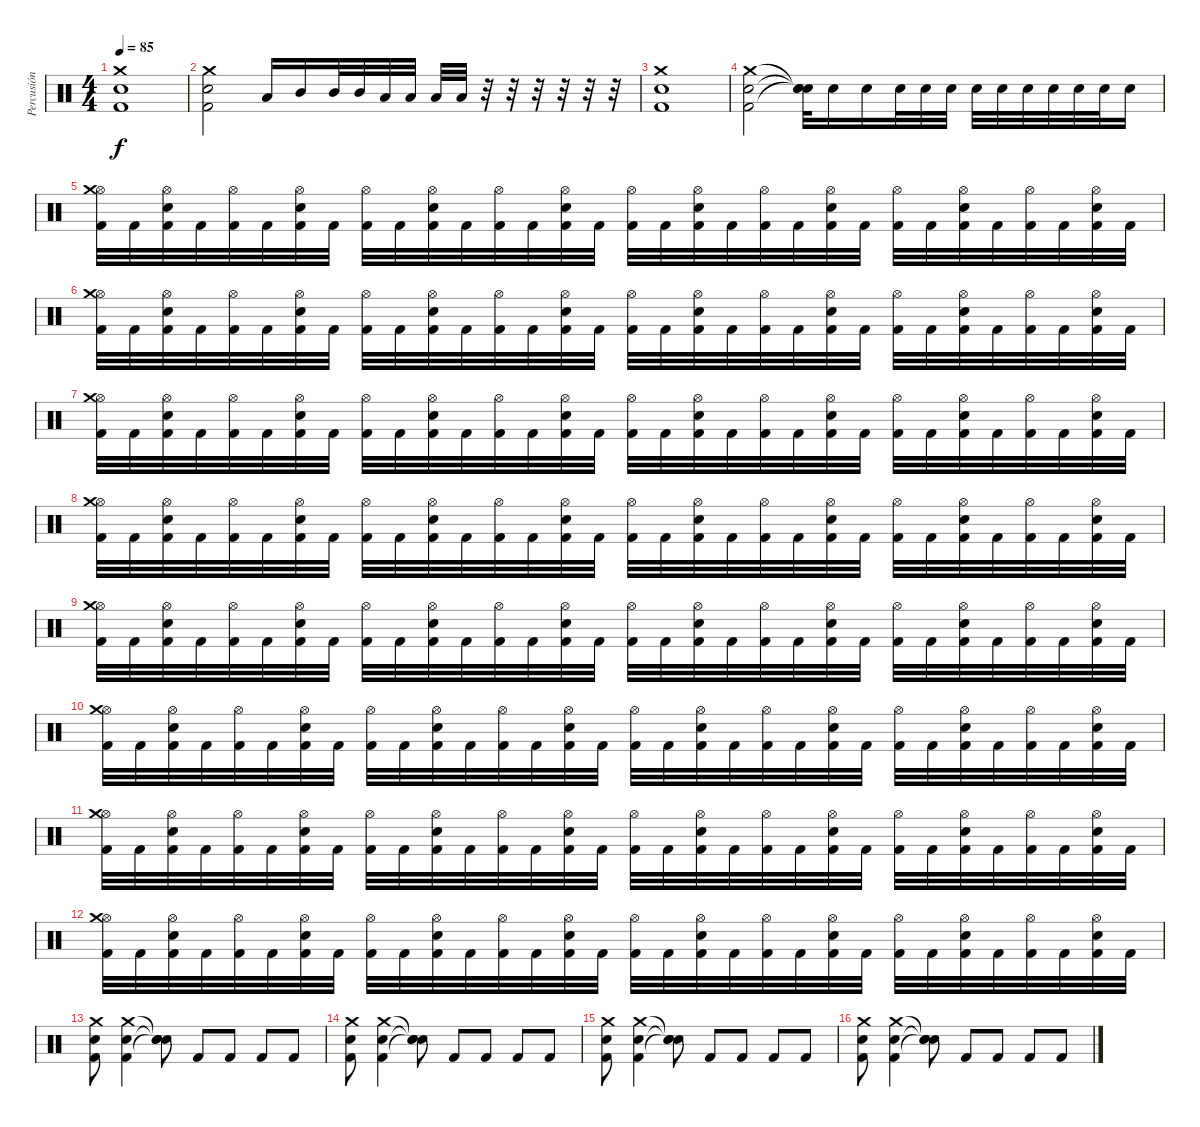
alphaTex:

\track ("Percusión" "Percusión") {instrument percussion}
\staff {score}
\articulation defaults
\ts (4 4)
\tempo 85
\clef neutral
\ks c
("Crash medium (hit)" "Snare (hit) 2" "Kick (hit) 2").1{dy f} |
("Crash medium (hit)" "Snare (hit) 2" "Kick (hit) 2").2 "Low Tom (hit)".16 "Mid Tom (hit)".16 "Mid Tom (hit)".32 "Mid Tom (hit)".32 "Low Tom (hit)".32 "Low Tom (hit)".32 "Low Tom (hit)".32 "Low Tom (hit)".32 r.32 r.32 r.32 r.32 r.32 r.32 |
("Crash medium (hit)" "Snare (hit) 2" "Kick (hit) 2").1 |
("Crash medium (hit)" "Snare (hit) 2" "Kick (hit) 2").2 ("Snare (hit)"{t} "Snare (hit) 2"{t} "Snare (hit)"{t}).32 "Snare (hit) 2".16 "Snare (hit) 2".16 "Snare (hit) 2".32 "Snare (hit) 2".32 "Snare (hit) 2".32 "Snare (hit) 2".32 "Snare (hit) 2".32 "Snare (hit) 2".32 "Snare (hit) 2".32 "Snare (hit) 2".32 "Snare (hit) 2".32 "Snare (hit) 2".16 |
("Hi-Hat (open)" "Kick (hit) 2" "Crash medium (hit)").32 "Kick (hit) 2".32 ("Hi-Hat (open)" "Electric Snare (hit)" "Kick (hit) 2").32 "Kick (hit) 2".32 ("Hi-Hat (open)" "Kick (hit) 2").32 "Kick (hit) 2".32 ("Hi-Hat (open)" "Electric Snare (hit)" "Kick (hit) 2").32 "Kick (hit) 2".32 ("Hi-Hat (open)" "Kick (hit) 2").32 "Kick (hit) 2".32 ("Hi-Hat (open)" "Electric Snare (hit)" "Kick (hit) 2").32 "Kick (hit) 2".32 ("Hi-Hat (open)" "Kick (hit) 2").32 "Kick (hit) 2".32 ("Hi-Hat (open)" "Electric Snare (hit)" "Kick (hit) 2").32 "Kick (hit) 2".32 ("Hi-Hat (open)" "Kick (hit) 2").32 "Kick (hit) 2".32 ("Hi-Hat (open)" "Electric Snare (hit)" "Kick (hit) 2").32 "Kick (hit) 2".32 ("Hi-Hat (open)" "Kick (hit) 2").32 "Kick (hit) 2".32 ("Hi-Hat (open)" "Electric Snare (hit)" "Kick (hit) 2").32 "Kick (hit) 2".32 ("Hi-Hat (open)" "Kick (hit) 2").32 "Kick (hit) 2".32 ("Hi-Hat (open)" "Electric Snare (hit)" "Kick (hit) 2").32 "Kick (hit) 2".32 ("Hi-Hat (open)" "Kick (hit) 2").32 "Kick (hit) 2".32 ("Hi-Hat (open)" "Electric Snare (hit)" "Kick (hit) 2").32 "Kick (hit) 2".32 |
("Hi-Hat (open)" "Kick (hit) 2" "Crash medium (hit)").32 "Kick (hit) 2".32 ("Hi-Hat (open)" "Electric Snare (hit)" "Kick (hit) 2").32 "Kick (hit) 2".32 ("Hi-Hat (open)" "Kick (hit) 2").32 "Kick (hit) 2".32 ("Hi-Hat (open)" "Electric Snare (hit)" "Kick (hit) 2").32 "Kick (hit) 2".32 ("Hi-Hat (open)" "Kick (hit) 2").32 "Kick (hit) 2".32 ("Hi-Hat (open)" "Electric Snare (hit)" "Kick (hit) 2").32 "Kick (hit) 2".32 ("Hi-Hat (open)" "Kick (hit) 2").32 "Kick (hit) 2".32 ("Hi-Hat (open)" "Electric Snare (hit)" "Kick (hit) 2").32 "Kick (hit) 2".32 ("Hi-Hat (open)" "Kick (hit) 2").32 "Kick (hit) 2".32 ("Hi-Hat (open)" "Electric Snare (hit)" "Kick (hit) 2").32 "Kick (hit) 2".32 ("Hi-Hat (open)" "Kick (hit) 2").32 "Kick (hit) 2".32 ("Hi-Hat (open)" "Electric Snare (hit)" "Kick (hit) 2").32 "Kick (hit) 2".32 ("Hi-Hat (open)" "Kick (hit) 2").32 "Kick (hit) 2".32 ("Hi-Hat (open)" "Electric Snare (hit)" "Kick (hit) 2").32 "Kick (hit) 2".32 ("Hi-Hat (open)" "Kick (hit) 2").32 "Kick (hit) 2".32 ("Hi-Hat (open)" "Electric Snare (hit)" "Kick (hit) 2").32 "Kick (hit) 2".32 |
("Hi-Hat (open)" "Kick (hit) 2" "Crash medium (hit)").32 "Kick (hit) 2".32 ("Hi-Hat (open)" "Electric Snare (hit)" "Kick (hit) 2").32 "Kick (hit) 2".32 ("Hi-Hat (open)" "Kick (hit) 2").32 "Kick (hit) 2".32 ("Hi-Hat (open)" "Electric Snare (hit)" "Kick (hit) 2").32 "Kick (hit) 2".32 ("Hi-Hat (open)" "Kick (hit) 2").32 "Kick (hit) 2".32 ("Hi-Hat (open)" "Electric Snare (hit)" "Kick (hit) 2").32 "Kick (hit) 2".32 ("Hi-Hat (open)" "Kick (hit) 2").32 "Kick (hit) 2".32 ("Hi-Hat (open)" "Electric Snare (hit)" "Kick (hit) 2").32 "Kick (hit) 2".32 ("Hi-Hat (open)" "Kick (hit) 2").32 "Kick (hit) 2".32 ("Hi-Hat (open)" "Electric Snare (hit)" "Kick (hit) 2").32 "Kick (hit) 2".32 ("Hi-Hat (open)" "Kick (hit) 2").32 "Kick (hit) 2".32 ("Hi-Hat (open)" "Electric Snare (hit)" "Kick (hit) 2").32 "Kick (hit) 2".32 ("Hi-Hat (open)" "Kick (hit) 2").32 "Kick (hit) 2".32 ("Hi-Hat (open)" "Electric Snare (hit)" "Kick (hit) 2").32 "Kick (hit) 2".32 ("Hi-Hat (open)" "Kick (hit) 2").32 "Kick (hit) 2".32 ("Hi-Hat (open)" "Electric Snare (hit)" "Kick (hit) 2").32 "Kick (hit) 2".32 |
("Hi-Hat (open)" "Kick (hit) 2" "Crash medium (hit)").32 "Kick (hit) 2".32 ("Hi-Hat (open)" "Electric Snare (hit)" "Kick (hit) 2").32 "Kick (hit) 2".32 ("Hi-Hat (open)" "Kick (hit) 2").32 "Kick (hit) 2".32 ("Hi-Hat (open)" "Electric Snare (hit)" "Kick (hit) 2").32 "Kick (hit) 2".32 ("Hi-Hat (open)" "Kick (hit) 2").32 "Kick (hit) 2".32 ("Hi-Hat (open)" "Electric Snare (hit)" "Kick (hit) 2").32 "Kick (hit) 2".32 ("Hi-Hat (open)" "Kick (hit) 2").32 "Kick (hit) 2".32 ("Hi-Hat (open)" "Electric Snare (hit)" "Kick (hit) 2").32 "Kick (hit) 2".32 ("Hi-Hat (open)" "Kick (hit) 2").32 "Kick (hit) 2".32 ("Hi-Hat (open)" "Electric Snare (hit)" "Kick (hit) 2").32 "Kick (hit) 2".32 ("Hi-Hat (open)" "Kick (hit) 2").32 "Kick (hit) 2".32 ("Hi-Hat (open)" "Electric Snare (hit)" "Kick (hit) 2").32 "Kick (hit) 2".32 ("Hi-Hat (open)" "Kick (hit) 2").32 "Kick (hit) 2".32 ("Hi-Hat (open)" "Electric Snare (hit)" "Kick (hit) 2").32 "Kick (hit) 2".32 ("Hi-Hat (open)" "Kick (hit) 2").32 "Kick (hit) 2".32 ("Hi-Hat (open)" "Electric Snare (hit)" "Kick (hit) 2").32 "Kick (hit) 2".32 |
("Hi-Hat (open)" "Kick (hit) 2" "Crash medium (hit)").32 "Kick (hit) 2".32 ("Hi-Hat (open)" "Electric Snare (hit)" "Kick (hit) 2").32 "Kick (hit) 2".32 ("Hi-Hat (open)" "Kick (hit) 2").32 "Kick (hit) 2".32 ("Hi-Hat (open)" "Electric Snare (hit)" "Kick (hit) 2").32 "Kick (hit) 2".32 ("Hi-Hat (open)" "Kick (hit) 2").32 "Kick (hit) 2".32 ("Hi-Hat (open)" "Electric Snare (hit)" "Kick (hit) 2").32 "Kick (hit) 2".32 ("Hi-Hat (open)" "Kick (hit) 2").32 "Kick (hit) 2".32 ("Hi-Hat (open)" "Electric Snare (hit)" "Kick (hit) 2").32 "Kick (hit) 2".32 ("Hi-Hat (open)" "Kick (hit) 2").32 "Kick (hit) 2".32 ("Hi-Hat (open)" "Electric Snare (hit)" "Kick (hit) 2").32 "Kick (hit) 2".32 ("Hi-Hat (open)" "Kick (hit) 2").32 "Kick (hit) 2".32 ("Hi-Hat (open)" "Electric Snare (hit)" "Kick (hit) 2").32 "Kick (hit) 2".32 ("Hi-Hat (open)" "Kick (hit) 2").32 "Kick (hit) 2".32 ("Hi-Hat (open)" "Electric Snare (hit)" "Kick (hit) 2").32 "Kick (hit) 2".32 ("Hi-Hat (open)" "Kick (hit) 2").32 "Kick (hit) 2".32 ("Hi-Hat (open)" "Electric Snare (hit)" "Kick (hit) 2").32 "Kick (hit) 2".32 |
("Hi-Hat (open)" "Kick (hit) 2" "Crash medium (hit)").32 "Kick (hit) 2".32 ("Hi-Hat (open)" "Electric Snare (hit)" "Kick (hit) 2").32 "Kick (hit) 2".32 ("Hi-Hat (open)" "Kick (hit) 2").32 "Kick (hit) 2".32 ("Hi-Hat (open)" "Electric Snare (hit)" "Kick (hit) 2").32 "Kick (hit) 2".32 ("Hi-Hat (open)" "Kick (hit) 2").32 "Kick (hit) 2".32 ("Hi-Hat (open)" "Electric Snare (hit)" "Kick (hit) 2").32 "Kick (hit) 2".32 ("Hi-Hat (open)" "Kick (hit) 2").32 "Kick (hit) 2".32 ("Hi-Hat (open)" "Electric Snare (hit)" "Kick (hit) 2").32 "Kick (hit) 2".32 ("Hi-Hat (open)" "Kick (hit) 2").32 "Kick (hit) 2".32 ("Hi-Hat (open)" "Electric Snare (hit)" "Kick (hit) 2").32 "Kick (hit) 2".32 ("Hi-Hat (open)" "Kick (hit) 2").32 "Kick (hit) 2".32 ("Hi-Hat (open)" "Electric Snare (hit)" "Kick (hit) 2").32 "Kick (hit) 2".32 ("Hi-Hat (open)" "Kick (hit) 2").32 "Kick (hit) 2".32 ("Hi-Hat (open)" "Electric Snare (hit)" "Kick (hit) 2").32 "Kick (hit) 2".32 ("Hi-Hat (open)" "Kick (hit) 2").32 "Kick (hit) 2".32 ("Hi-Hat (open)" "Electric Snare (hit)" "Kick (hit) 2").32 "Kick (hit) 2".32 |
("Hi-Hat (open)" "Kick (hit) 2" "Crash medium (hit)").32 "Kick (hit) 2".32 ("Hi-Hat (open)" "Electric Snare (hit)" "Kick (hit) 2").32 "Kick (hit) 2".32 ("Hi-Hat (open)" "Kick (hit) 2").32 "Kick (hit) 2".32 ("Hi-Hat (open)" "Electric Snare (hit)" "Kick (hit) 2").32 "Kick (hit) 2".32 ("Hi-Hat (open)" "Kick (hit) 2").32 "Kick (hit) 2".32 ("Hi-Hat (open)" "Electric Snare (hit)" "Kick (hit) 2").32 "Kick (hit) 2".32 ("Hi-Hat (open)" "Kick (hit) 2").32 "Kick (hit) 2".32 ("Hi-Hat (open)" "Electric Snare (hit)" "Kick (hit) 2").32 "Kick (hit) 2".32 ("Hi-Hat (open)" "Kick (hit) 2").32 "Kick (hit) 2".32 ("Hi-Hat (open)" "Electric Snare (hit)" "Kick (hit) 2").32 "Kick (hit) 2".32 ("Hi-Hat (open)" "Kick (hit) 2").32 "Kick (hit) 2".32 ("Hi-Hat (open)" "Electric Snare (hit)" "Kick (hit) 2").32 "Kick (hit) 2".32 ("Hi-Hat (open)" "Kick (hit) 2").32 "Kick (hit) 2".32 ("Hi-Hat (open)" "Electric Snare (hit)" "Kick (hit) 2").32 "Kick (hit) 2".32 ("Hi-Hat (open)" "Kick (hit) 2").32 "Kick (hit) 2".32 ("Hi-Hat (open)" "Electric Snare (hit)" "Kick (hit) 2").32 "Kick (hit) 2".32 |
("Hi-Hat (open)" "Kick (hit) 2" "Crash medium (hit)").32 "Kick (hit) 2".32 ("Hi-Hat (open)" "Electric Snare (hit)" "Kick (hit) 2").32 "Kick (hit) 2".32 ("Hi-Hat (open)" "Kick (hit) 2").32 "Kick (hit) 2".32 ("Hi-Hat (open)" "Electric Snare (hit)" "Kick (hit) 2").32 "Kick (hit) 2".32 ("Hi-Hat (open)" "Kick (hit) 2").32 "Kick (hit) 2".32 ("Hi-Hat (open)" "Electric Snare (hit)" "Kick (hit) 2").32 "Kick (hit) 2".32 ("Hi-Hat (open)" "Kick (hit) 2").32 "Kick (hit) 2".32 ("Hi-Hat (open)" "Electric Snare (hit)" "Kick (hit) 2").32 "Kick (hit) 2".32 ("Hi-Hat (open)" "Kick (hit) 2").32 "Kick (hit) 2".32 ("Hi-Hat (open)" "Electric Snare (hit)" "Kick (hit) 2").32 "Kick (hit) 2".32 ("Hi-Hat (open)" "Kick (hit) 2").32 "Kick (hit) 2".32 ("Hi-Hat (open)" "Electric Snare (hit)" "Kick (hit) 2").32 "Kick (hit) 2".32 ("Hi-Hat (open)" "Kick (hit) 2").32 "Kick (hit) 2".32 ("Hi-Hat (open)" "Electric Snare (hit)" "Kick (hit) 2").32 "Kick (hit) 2".32 ("Hi-Hat (open)" "Kick (hit) 2").32 "Kick (hit) 2".32 ("Hi-Hat (open)" "Electric Snare (hit)" "Kick (hit) 2").32 "Kick (hit) 2".32 |
("Crash medium (hit)" "Electric Snare (hit)" "Kick (hit) 2").8 ("Crash medium (hit)" "Electric Snare (hit)" "Kick (hit) 2").4 ("Snare (hit)"{t} "Snare (hit)"{t} "Snare (hit)"{t}).8 "Kick (hit) 2".8 "Kick (hit) 2".8 "Kick (hit) 2".8 "Kick (hit) 2".8 |
("Crash medium (hit)" "Electric Snare (hit)" "Kick (hit) 2").8 ("Crash medium (hit)" "Electric Snare (hit)" "Kick (hit) 2").4 ("Snare (hit)"{t} "Snare (hit)"{t} "Snare (hit)"{t}).8 "Kick (hit) 2".8 "Kick (hit) 2".8 "Kick (hit) 2".8 "Kick (hit) 2".8 |
("Crash medium (hit)" "Electric Snare (hit)" "Kick (hit) 2").8 ("Crash medium (hit)" "Electric Snare (hit)" "Kick (hit) 2").4 ("Snare (hit)"{t} "Snare (hit)"{t} "Snare (hit)"{t}).8 "Kick (hit) 2".8 "Kick (hit) 2".8 "Kick (hit) 2".8 "Kick (hit) 2".8 |
("Crash medium (hit)" "Electric Snare (hit)" "Kick (hit) 2").8 ("Crash medium (hit)" "Electric Snare (hit)" "Kick (hit) 2").4 ("Snare (hit)"{t} "Snare (hit)"{t} "Snare (hit)"{t}).8 "Kick (hit) 2".8 "Kick (hit) 2".8 "Kick (hit) 2".8 "Kick (hit) 2".8
